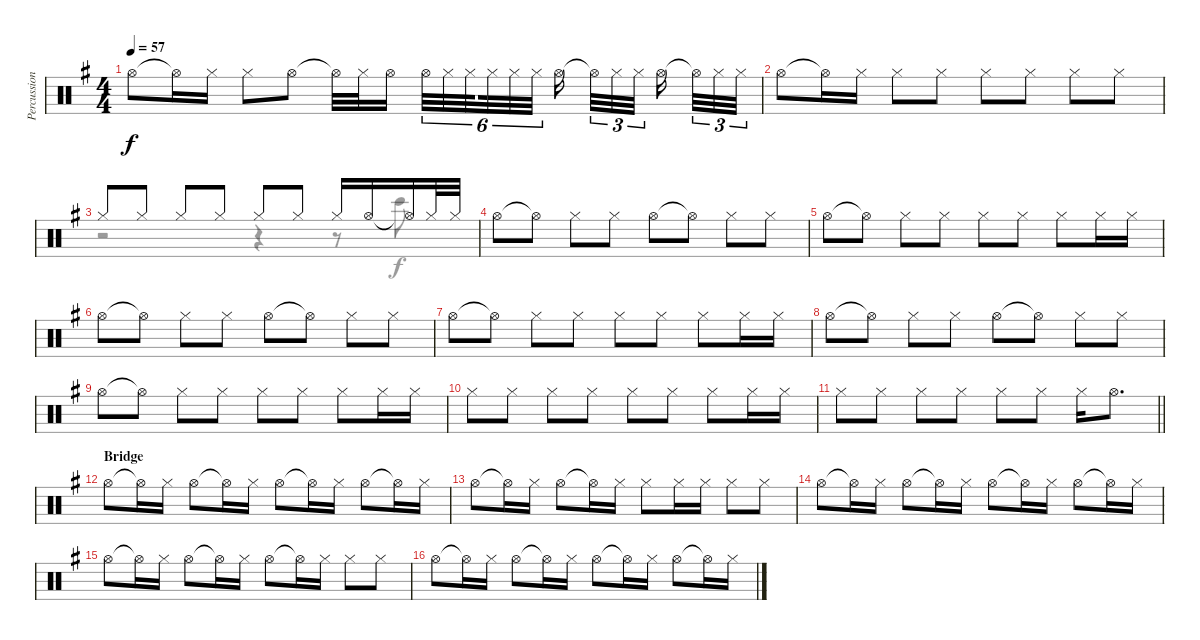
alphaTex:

\track ("Percussion 1" "Percussion") {instrument percussion}
\staff {score}
\articulation defaults
\voice
\ts (4 4)
\tempo 57
\clef neutral
\ks g "Hi-Hat (open)".8{dy f} "Hi-Hat (open)"{t}.16 "Hi-Hat (closed)".16 "Hi-Hat (closed)".8 "Hi-Hat (open)".8 "Hi-Hat (open)"{t}.32 "Hi-Hat (closed)".32 "Hi-Hat (open)".16{beam splitsecondary} "Hi-Hat (open)".32{tu (6 4)} "Hi-Hat (closed)".32{tu (6 4)} "Hi-Hat (closed)".32{tu (6 4) beam splitsecondary} "Hi-Hat (closed)".32{tu (6 4)} "Hi-Hat (closed)".32{tu (6 4)} "Hi-Hat (closed)".32{tu (6 4)} "Hi-Hat (open)".16{beam splitsecondary} "Hi-Hat (open)"{t}.32{tu (3 2)} "Hi-Hat (closed)".32{tu (3 2)} "Hi-Hat (closed)".32{tu (3 2) beam splitsecondary} "Hi-Hat (open)".16{beam splitsecondary} "Hi-Hat (open)"{t}.32{tu (3 2)} "Hi-Hat (closed)".32{tu (3 2)} "Hi-Hat (closed)".32{tu (3 2)}
|
"Hi-Hat (open)".8 "Hi-Hat (open)"{t}.16 "Hi-Hat (closed)".16 "Hi-Hat (closed)".8 "Hi-Hat (closed)".8 "Hi-Hat (closed)".8 "Hi-Hat (closed)".8 "Hi-Hat (closed)".8 "Hi-Hat (closed)".8 |
"Hi-Hat (closed)".8 "Hi-Hat (closed)".8 "Hi-Hat (closed)".8 "Hi-Hat (closed)".8 "Hi-Hat (closed)".8 "Hi-Hat (closed)".8 "Hi-Hat (closed)".16 "Hi-Hat (open)".16 "Hi-Hat (open)"{t}.16 "Hi-Hat (closed)".32 "Hi-Hat (closed)".32 |
"Hi-Hat (open)".8 "Hi-Hat (open)"{t}.8 "Hi-Hat (closed)".8 "Hi-Hat (closed)".8 "Hi-Hat (open)".8 "Hi-Hat (open)"{t}.8 "Hi-Hat (closed)".8 "Hi-Hat (closed)".8 |
"Hi-Hat (open)".8 "Hi-Hat (open)"{t}.8 "Hi-Hat (closed)".8 "Hi-Hat (closed)".8 "Hi-Hat (closed)".8 "Hi-Hat (closed)".8 "Hi-Hat (closed)".8 "Hi-Hat (closed)".16 "Hi-Hat (closed)".16 |
"Hi-Hat (open)".8 "Hi-Hat (open)"{t}.8 "Hi-Hat (closed)".8 "Hi-Hat (closed)".8 "Hi-Hat (open)".8 "Hi-Hat (open)"{t}.8 "Hi-Hat (closed)".8 "Hi-Hat (closed)".8 |
"Hi-Hat (open)".8 "Hi-Hat (open)"{t}.8 "Hi-Hat (closed)".8 "Hi-Hat (closed)".8 "Hi-Hat (closed)".8 "Hi-Hat (closed)".8 "Hi-Hat (closed)".8 "Hi-Hat (closed)".16 "Hi-Hat (closed)".16 |
"Hi-Hat (open)".8 "Hi-Hat (open)"{t}.8 "Hi-Hat (closed)".8 "Hi-Hat (closed)".8 "Hi-Hat (open)".8 "Hi-Hat (open)"{t}.8 "Hi-Hat (closed)".8 "Hi-Hat (closed)".8 |
"Hi-Hat (open)".8 "Hi-Hat (open)"{t}.8 "Hi-Hat (closed)".8 "Hi-Hat (closed)".8 "Hi-Hat (closed)".8 "Hi-Hat (closed)".8 "Hi-Hat (closed)".8 "Hi-Hat (closed)".16 "Hi-Hat (closed)".16 |
"Hi-Hat (closed)".8 "Hi-Hat (closed)".8 "Hi-Hat (closed)".8 "Hi-Hat (closed)".8 "Hi-Hat (closed)".8 "Hi-Hat (closed)".8 "Hi-Hat (closed)".8 "Hi-Hat (closed)".16 "Hi-Hat (closed)".16 |
\barLineRight lightlight "Hi-Hat (closed)".8 "Hi-Hat (closed)".8 "Hi-Hat (closed)".8 "Hi-Hat (closed)".8 "Hi-Hat (closed)".8 "Hi-Hat (closed)".8 "Hi-Hat (closed)".16 "Hi-Hat (open)".8{d}
|
\section ("" "Bridge")
"Hi-Hat (open)".8 "Hi-Hat (open)"{t}.16 "Hi-Hat (closed)".16 "Hi-Hat (open)".8 "Hi-Hat (open)"{t}.16 "Hi-Hat (closed)".16 "Hi-Hat (open)".8 "Hi-Hat (open)"{t}.16 "Hi-Hat (closed)".16 "Hi-Hat (open)".8 "Hi-Hat (open)"{t}.16 "Hi-Hat (closed)".16 |
"Hi-Hat (open)".8 "Hi-Hat (open)"{t}.16 "Hi-Hat (closed)".16 "Hi-Hat (open)".8 "Hi-Hat (open)"{t}.16 "Hi-Hat (closed)".16 "Hi-Hat (closed)".8 "Hi-Hat (closed)".16 "Hi-Hat (closed)".16 "Hi-Hat (closed)".8 "Hi-Hat (closed)".8 |
"Hi-Hat (open)".8 "Hi-Hat (open)"{t}.16 "Hi-Hat (closed)".16 "Hi-Hat (open)".8 "Hi-Hat (open)"{t}.16 "Hi-Hat (closed)".16 "Hi-Hat (open)".8 "Hi-Hat (open)"{t}.16 "Hi-Hat (closed)".16 "Hi-Hat (open)".8 "Hi-Hat (open)"{t}.16 "Hi-Hat (closed)".16 |
"Hi-Hat (open)".8 "Hi-Hat (open)"{t}.16 "Hi-Hat (closed)".16 "Hi-Hat (open)".8 "Hi-Hat (open)"{t}.16 "Hi-Hat (closed)".16 "Hi-Hat (open)".8 "Hi-Hat (open)"{t}.16 "Hi-Hat (closed)".16 "Hi-Hat (closed)".8 "Hi-Hat (closed)".8 |
"Hi-Hat (open)".8 "Hi-Hat (open)"{t}.16 "Hi-Hat (closed)".16 "Hi-Hat (open)".8 "Hi-Hat (open)"{t}.16 "Hi-Hat (closed)".16 "Hi-Hat (open)".8 "Hi-Hat (open)"{t}.16 "Hi-Hat (closed)".16 "Hi-Hat (open)".8 "Hi-Hat (open)"{t}.16 "Hi-Hat (closed)".16
\voice
\clef neutral
\ottava regular
\simile none
\ks g
|
|
r.2 r.4 r.8 "Bongo High (hit)".8 |
|
|
|
|
|
|
|
\barLineRight lightlight
|
|
|
|
|
